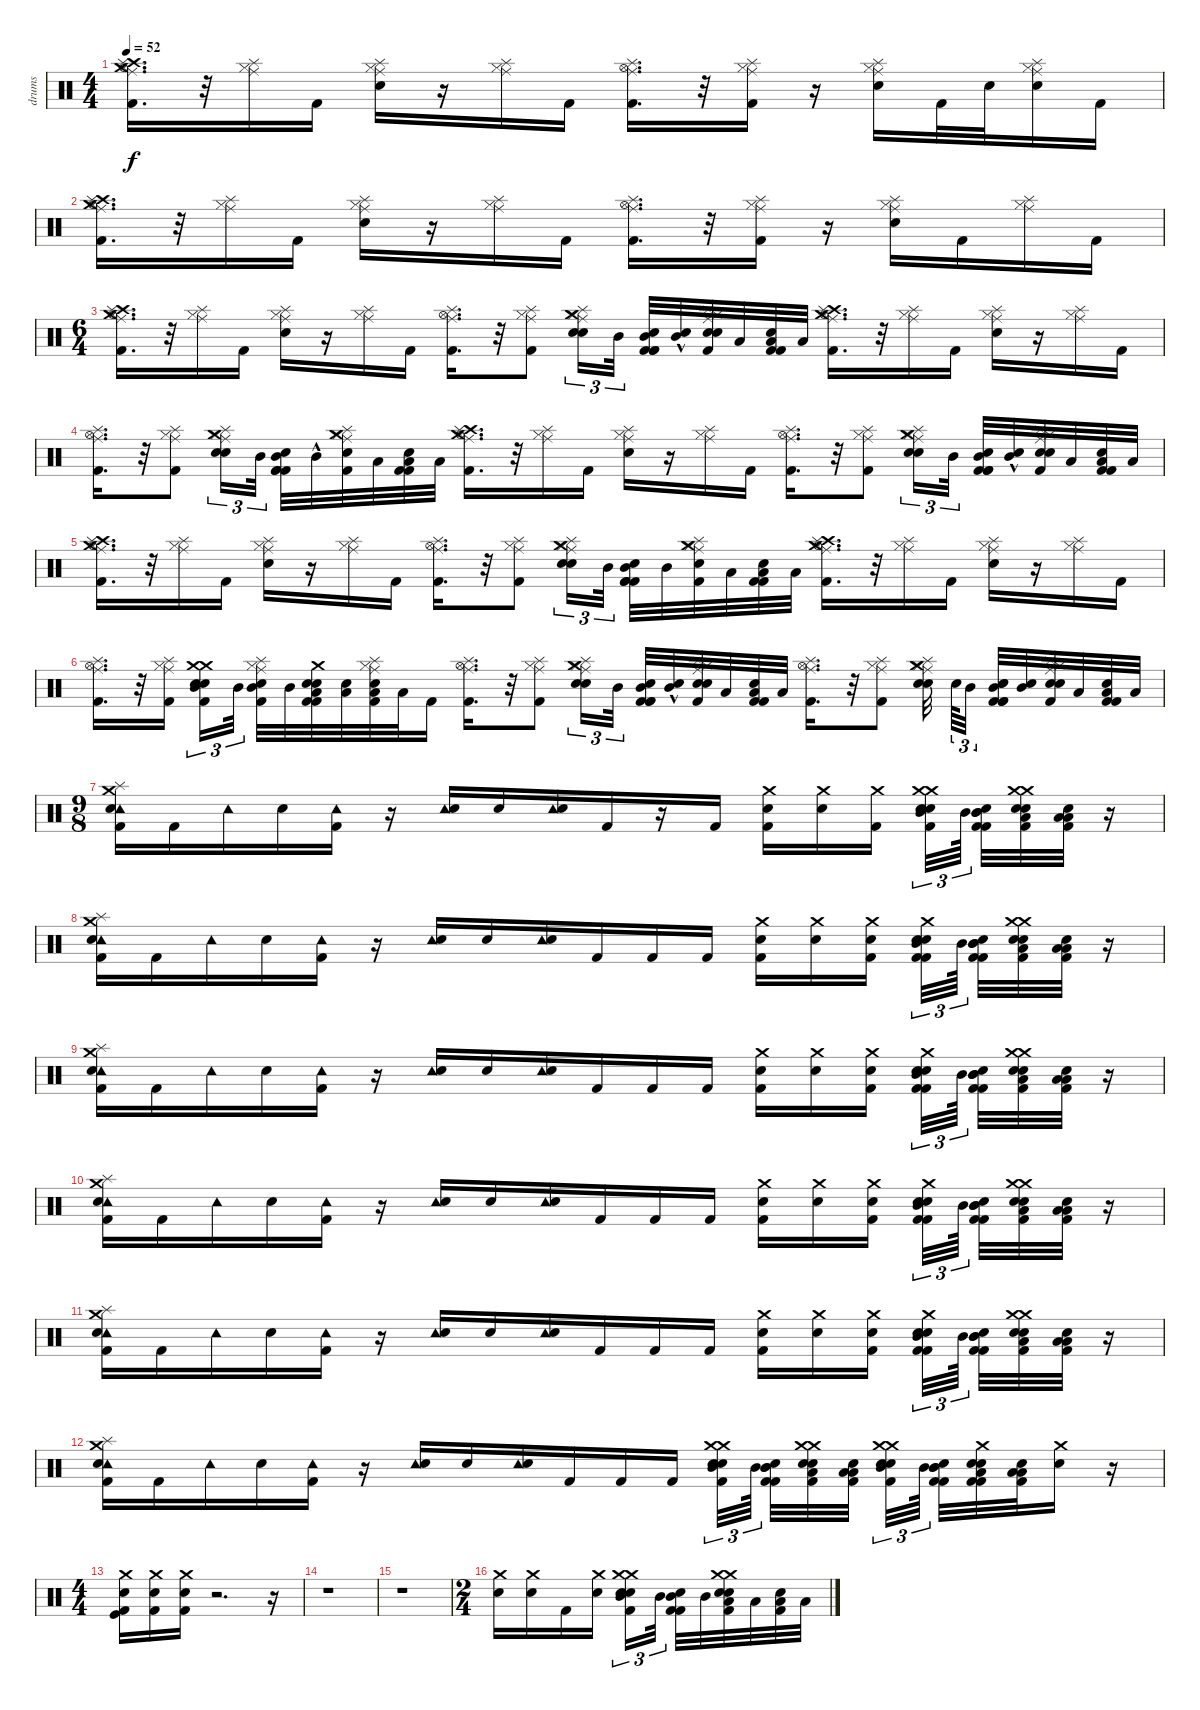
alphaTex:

\track ("drums" "drums") {instrument percussion}
\staff {score}
\articulation defaults
\ts (4 4)
\tempo 52
\clef neutral
\ks c
("Crash medium (hit)" "Crash high (hit)" "Kick (hit) 2" "Ride (middle)" "Hi-Hat (open)" "Splash (hit)").16{d dy f} r.32 ("Ride (middle)" "Hi-Hat (closed)" "Splash (hit)").16 "Kick (hit) 2".16 ("Snare (hit) 2" "Ride (middle)" "Hi-Hat (closed)" "Splash (hit)").16 r.16 ("Ride (middle)" "Hi-Hat (closed)" "Splash (hit)").16 "Kick (hit) 2".16 ("Kick (hit) 2" "Ride (middle)" "Hi-Hat (open)" "Splash (hit)").16{d} r.32 ("Kick (hit) 2" "Ride (middle)" "Hi-Hat (closed)" "Splash (hit)").16 r.16 ("Snare (hit) 2" "Ride (middle)" "Hi-Hat (closed)" "Splash (hit)").16 "Kick (hit) 2".32 "Snare (hit) 2".32 ("Hi-Hat (closed)" "Splash (hit)" "Ride (middle)" "Snare (hit) 2").16 "Kick (hit) 2".16 |
("Crash medium (hit)" "Crash high (hit)" "Kick (hit) 2" "Ride (middle)" "Hi-Hat (open)" "Splash (hit)").16{d} r.32 ("Ride (middle)" "Hi-Hat (closed)" "Splash (hit)").16 "Kick (hit) 2".16 ("Snare (hit) 2" "Ride (middle)" "Hi-Hat (closed)" "Splash (hit)").16 r.16 ("Ride (middle)" "Hi-Hat (closed)" "Splash (hit)").16 "Kick (hit) 2".16 ("Kick (hit) 2" "Ride (middle)" "Hi-Hat (open)" "Splash (hit)").16{d} r.32 ("Kick (hit) 2" "Ride (middle)" "Hi-Hat (closed)" "Splash (hit)").16 r.16 ("Snare (hit) 2" "Ride (middle)" "Hi-Hat (closed)" "Splash (hit)").16 "Kick (hit) 2".16 ("Ride (middle)" "Hi-Hat (closed)" "Splash (hit)").16 "Kick (hit) 2".16 |
\ts (6 4)
("Crash medium (hit)" "Crash high (hit)" "Kick (hit) 2" "Ride (middle)" "Hi-Hat (open)" "Splash (hit)").16{d} r.32 ("Ride (middle)" "Hi-Hat (closed)" "Splash (hit)").16 "Kick (hit) 2".16 ("Snare (hit) 2" "Ride (middle)" "Hi-Hat (closed)" "Splash (hit)").16 r.16 ("Ride (middle)" "Hi-Hat (closed)" "Splash (hit)").16 "Kick (hit) 2".16 ("Kick (hit) 2" "Ride (middle)" "Hi-Hat (open)" "Splash (hit)").16{d} r.32 ("Kick (hit) 2" "Ride (middle)" "Hi-Hat (closed)" "Splash (hit)").8 ("Snare (hit) 2" "Ride (middle)" "Hi-Hat (closed)" "Splash (hit)" "Snare (hit) 2" "Crash medium (hit)").16{tu (3 2)} "Mid Tom (hit)".32{tu (3 2)} ("Kick (hit) 2" "Kick (hit) 2" "Mid Tom (hit)" "Kick (hit) 2" "Snare (hit) 2").32 ("Mid Tom (hit)"{hac} "Snare (hit) 2").32 ("Hi-Hat (closed)" "Splash (hit)" "Ride (middle)" "Snare (hit) 2" "Snare (hit) 2" "Kick (hit) 2").32 "Low Tom (hit)".32 ("Kick (hit) 2" "Low Tom (hit)" "Kick (hit) 2" "Snare (hit) 2").32 "Low Tom (hit)".32 ("Crash medium (hit)" "Crash high (hit)" "Kick (hit) 2" "Ride (middle)" "Hi-Hat (open)" "Splash (hit)").16{d} r.32 ("Ride (middle)" "Hi-Hat (closed)" "Splash (hit)").16 "Kick (hit) 2".16 ("Snare (hit) 2" "Ride (middle)" "Hi-Hat (closed)" "Splash (hit)").16 r.16 ("Ride (middle)" "Hi-Hat (closed)" "Splash (hit)").16 "Kick (hit) 2".16 |
("Kick (hit) 2" "Ride (middle)" "Hi-Hat (open)" "Splash (hit)").16{d} r.32 ("Kick (hit) 2" "Ride (middle)" "Hi-Hat (closed)" "Splash (hit)").8 ("Snare (hit) 2" "Ride (middle)" "Hi-Hat (closed)" "Splash (hit)" "Snare (hit) 2" "Crash medium (hit)").16{tu (3 2)} "Mid Tom (hit)".32{tu (3 2)} ("Kick (hit) 2" "Kick (hit) 2" "Mid Tom (hit)" "Kick (hit) 2" "Snare (hit) 2").32 "Mid Tom (hit)"{hac}.32 ("Ride (middle)" "Hi-Hat (closed)" "Splash (hit)" "Snare (hit) 2" "Kick (hit) 2" "Crash medium (hit)").32 "Low Tom (hit)".32 ("Kick (hit) 2" "Low Tom (hit)" "Kick (hit) 2" "Snare (hit) 2").32 "Low Tom (hit)".32 ("Crash medium (hit)" "Crash high (hit)" "Kick (hit) 2" "Ride (middle)" "Hi-Hat (open)" "Splash (hit)").16{d} r.32 ("Ride (middle)" "Hi-Hat (closed)" "Splash (hit)").16 "Kick (hit) 2".16 ("Snare (hit) 2" "Ride (middle)" "Hi-Hat (closed)" "Splash (hit)").16 r.16 ("Ride (middle)" "Hi-Hat (closed)" "Splash (hit)").16 "Kick (hit) 2".16 ("Kick (hit) 2" "Ride (middle)" "Hi-Hat (open)" "Splash (hit)").16{d} r.32 ("Kick (hit) 2" "Ride (middle)" "Hi-Hat (closed)" "Splash (hit)").8 ("Snare (hit) 2" "Ride (middle)" "Hi-Hat (closed)" "Splash (hit)" "Snare (hit) 2" "Crash medium (hit)").16{tu (3 2)} "Mid Tom (hit)".32{tu (3 2)} ("Kick (hit) 2" "Kick (hit) 2" "Mid Tom (hit)" "Kick (hit) 2" "Snare (hit) 2").32 ("Mid Tom (hit)"{hac} "Snare (hit) 2").32 ("Hi-Hat (closed)" "Splash (hit)" "Ride (middle)" "Snare (hit) 2" "Snare (hit) 2" "Kick (hit) 2").32 "Low Tom (hit)".32 ("Kick (hit) 2" "Low Tom (hit)" "Kick (hit) 2" "Snare (hit) 2").32 "Low Tom (hit)".32 |
("Crash medium (hit)" "Crash high (hit)" "Kick (hit) 2" "Ride (middle)" "Hi-Hat (open)" "Splash (hit)").16{d} r.32 ("Ride (middle)" "Hi-Hat (closed)" "Splash (hit)").16 "Kick (hit) 2".16 ("Snare (hit) 2" "Ride (middle)" "Hi-Hat (closed)" "Splash (hit)").16 r.16 ("Ride (middle)" "Hi-Hat (closed)" "Splash (hit)").16 "Kick (hit) 2".16 ("Kick (hit) 2" "Ride (middle)" "Hi-Hat (open)" "Splash (hit)").16{d} r.32 ("Kick (hit) 2" "Ride (middle)" "Hi-Hat (closed)" "Splash (hit)").8 ("Snare (hit) 2" "Ride (middle)" "Hi-Hat (closed)" "Splash (hit)" "Snare (hit) 2" "Crash medium (hit)").16{tu (3 2)} "Mid Tom (hit)".32{tu (3 2)} ("Kick (hit) 2" "Kick (hit) 2" "Mid Tom (hit)" "Kick (hit) 2" "Snare (hit) 2").32 "Mid Tom (hit)".32 ("Ride (middle)" "Hi-Hat (closed)" "Splash (hit)" "Snare (hit) 2" "Kick (hit) 2" "Crash medium (hit)").32 "Low Tom (hit)".32 ("Kick (hit) 2" "Low Tom (hit)" "Kick (hit) 2" "Snare (hit) 2").32 "Low Tom (hit)".32 ("Crash medium (hit)" "Crash high (hit)" "Kick (hit) 2" "Ride (middle)" "Hi-Hat (open)" "Splash (hit)").16{d} r.32 ("Ride (middle)" "Hi-Hat (closed)" "Splash (hit)").16 "Kick (hit) 2".16 ("Snare (hit) 2" "Ride (middle)" "Hi-Hat (closed)" "Splash (hit)").16 r.16 ("Ride (middle)" "Hi-Hat (closed)" "Splash (hit)").16 "Kick (hit) 2".16 |
("Kick (hit) 2" "Ride (middle)" "Hi-Hat (open)" "Splash (hit)").16{d} r.32 ("Kick (hit) 2" "Ride (middle)" "Hi-Hat (closed)" "Splash (hit)").16 ("Snare (hit) 2" "Crash medium (hit)" "Mid Tom (hit)" "Kick (hit) 2" "Snare (hit) 2" "Crash medium (hit)").16{tu (3 2)} "Mid Tom (hit)".32{tu (3 2)} ("Snare (hit) 2" "Ride (middle)" "Hi-Hat (closed)" "Splash (hit)" "Kick (hit) 2" "Mid Tom (hit)").32 "Mid Tom (hit)".32 ("Kick (hit) 2" "Snare (hit) 2" "Kick (hit) 2" "Crash medium (hit)" "Low Tom (hit)" "Snare (hit) 2").32 ("Low Tom (hit)" "Snare (hit) 2").32 ("Hi-Hat (closed)" "Splash (hit)" "Ride (middle)" "Snare (hit) 2" "Low Tom (hit)" "Kick (hit) 2").32 "Low Tom (hit)".32 "Kick (hit) 2".16 ("Kick (hit) 2" "Ride (middle)" "Hi-Hat (open)" "Splash (hit)").16{d} r.32 ("Kick (hit) 2" "Ride (middle)" "Hi-Hat (closed)" "Splash (hit)").8 ("Snare (hit) 2" "Ride (middle)" "Hi-Hat (closed)" "Splash (hit)" "Snare (hit) 2" "Crash medium (hit)").16{tu (3 2)} "Mid Tom (hit)".32{tu (3 2)} ("Kick (hit) 2" "Kick (hit) 2" "Mid Tom (hit)" "Kick (hit) 2" "Snare (hit) 2").32 ("Mid Tom (hit)"{hac} "Snare (hit) 2").32 ("Hi-Hat (closed)" "Splash (hit)" "Ride (middle)" "Snare (hit) 2" "Snare (hit) 2" "Kick (hit) 2").32 "Low Tom (hit)".32 ("Kick (hit) 2" "Low Tom (hit)" "Kick (hit) 2" "Snare (hit) 2").32 "Low Tom (hit)".32 ("Kick (hit) 2" "Ride (middle)" "Hi-Hat (open)" "Splash (hit)").16{d} r.32 ("Kick (hit) 2" "Ride (middle)" "Hi-Hat (closed)" "Splash (hit)").8 ("Snare (hit) 2" "Ride (middle)" "Hi-Hat (closed)" "Splash (hit)" "Snare (hit) 2" "Crash medium (hit)").32 "Snare (hit) 2".64{tu (3 2)} "Mid Tom (hit)".32{tu (3 2)} ("Kick (hit) 2" "Snare (hit) 2" "Kick (hit) 2" "Mid Tom (hit)" "Kick (hit) 2" "Snare (hit) 2").32 ("Mid Tom (hit)" "Snare (hit) 2").32 ("Hi-Hat (closed)" "Splash (hit)" "Ride (middle)" "Snare (hit) 2" "Snare (hit) 2" "Kick (hit) 2").32 "Low Tom (hit)".32 ("Kick (hit) 2" "Low Tom (hit)" "Kick (hit) 2" "Snare (hit) 2").32 "Low Tom (hit)".32 |
\ts (9 8)
("Crash medium (hit)" "Splash (hit)" "Tambourine (hit)" "Snare (hit) 2" "Kick (hit) 2").16 "Kick (hit) 2".16 "Tambourine (hit)".16 "Snare (hit) 2".16 ("Tambourine (hit)" "Kick (hit) 2").16 r.16 ("Tambourine (hit)" "Snare (hit) 2").16 "Snare (hit) 2".16 ("Tambourine (hit)" "Snare (hit) 2").16 "Kick (hit) 2".16 r.16 "Kick (hit) 2".16 ("Kick (hit) 2" "Crash medium (hit)" "Snare (hit) 2").16 ("Snare (hit) 2" "Crash medium (hit)").16 ("Kick (hit) 2" "Crash medium (hit)").16 ("Snare (hit) 2" "Crash medium (hit)" "Mid Tom (hit)" "Kick (hit) 2" "Snare (hit) 2" "Crash medium (hit)").32{tu (3 2)} "Mid Tom (hit)".64{tu (3 2)} ("Kick (hit) 2" "Mid Tom (hit)" "Kick (hit) 2" "Snare (hit) 2" "Mid Tom (hit)").32 ("Snare (hit) 2" "Crash medium (hit)" "Snare (hit) 2" "Kick (hit) 2" "Crash medium (hit)" "Low Tom (hit)").32 ("Low Tom (hit)" "Kick (hit) 2" "Snare (hit) 2" "Low Tom (hit)").32 r.16 |
("Crash medium (hit)" "Splash (hit)" "Tambourine (hit)" "Snare (hit) 2" "Kick (hit) 2").16 "Kick (hit) 2".16 "Tambourine (hit)".16 "Snare (hit) 2".16 ("Tambourine (hit)" "Kick (hit) 2").16 r.16 ("Tambourine (hit)" "Snare (hit) 2").16 "Snare (hit) 2".16 ("Tambourine (hit)" "Snare (hit) 2").16 "Kick (hit) 2".16 "Kick (hit) 2".16 "Kick (hit) 2".16 ("Kick (hit) 2" "Crash medium (hit)" "Snare (hit) 2").16 ("Snare (hit) 2" "Crash medium (hit)").16 ("Kick (hit) 2" "Crash medium (hit)" "Snare (hit) 2").16 ("Kick (hit) 2" "Snare (hit) 2" "Crash medium (hit)" "Mid Tom (hit)" "Kick (hit) 2" "Snare (hit) 2").32{tu (3 2)} "Mid Tom (hit)".64{tu (3 2)} ("Kick (hit) 2" "Mid Tom (hit)" "Kick (hit) 2" "Snare (hit) 2" "Mid Tom (hit)").32 ("Snare (hit) 2" "Crash medium (hit)" "Snare (hit) 2" "Kick (hit) 2" "Crash medium (hit)" "Low Tom (hit)").32 ("Low Tom (hit)" "Kick (hit) 2" "Snare (hit) 2" "Low Tom (hit)").32 r.16 |
("Crash medium (hit)" "Splash (hit)" "Tambourine (hit)" "Snare (hit) 2" "Kick (hit) 2").16 "Kick (hit) 2".16 "Tambourine (hit)".16 "Snare (hit) 2".16 ("Tambourine (hit)" "Kick (hit) 2").16 r.16 ("Tambourine (hit)" "Snare (hit) 2").16 "Snare (hit) 2".16 ("Tambourine (hit)" "Snare (hit) 2").16 "Kick (hit) 2".16 "Kick (hit) 2".16 "Kick (hit) 2".16 ("Kick (hit) 2" "Crash medium (hit)" "Snare (hit) 2").16 ("Snare (hit) 2" "Crash medium (hit)").16 ("Kick (hit) 2" "Crash medium (hit)" "Snare (hit) 2").16 ("Kick (hit) 2" "Snare (hit) 2" "Crash medium (hit)" "Mid Tom (hit)" "Kick (hit) 2" "Snare (hit) 2").32{tu (3 2)} "Mid Tom (hit)".64{tu (3 2)} ("Kick (hit) 2" "Mid Tom (hit)" "Kick (hit) 2" "Snare (hit) 2" "Mid Tom (hit)").32 ("Snare (hit) 2" "Crash medium (hit)" "Snare (hit) 2" "Kick (hit) 2" "Crash medium (hit)" "Low Tom (hit)").32 ("Low Tom (hit)" "Kick (hit) 2" "Snare (hit) 2" "Low Tom (hit)").32 r.16 |
("Crash medium (hit)" "Splash (hit)" "Tambourine (hit)" "Snare (hit) 2" "Kick (hit) 2").16 "Kick (hit) 2".16 "Tambourine (hit)".16 "Snare (hit) 2".16 ("Tambourine (hit)" "Kick (hit) 2").16 r.16 ("Tambourine (hit)" "Snare (hit) 2").16 "Snare (hit) 2".16 ("Tambourine (hit)" "Snare (hit) 2").16 "Kick (hit) 2".16 "Kick (hit) 2".16 "Kick (hit) 2".16 ("Kick (hit) 2" "Crash medium (hit)" "Snare (hit) 2").16 ("Snare (hit) 2" "Crash medium (hit)").16 ("Kick (hit) 2" "Crash medium (hit)" "Snare (hit) 2").16 ("Kick (hit) 2" "Snare (hit) 2" "Crash medium (hit)" "Mid Tom (hit)" "Kick (hit) 2" "Snare (hit) 2").32{tu (3 2)} "Mid Tom (hit)".64{tu (3 2)} ("Kick (hit) 2" "Mid Tom (hit)" "Kick (hit) 2" "Snare (hit) 2" "Mid Tom (hit)").32 ("Snare (hit) 2" "Crash medium (hit)" "Snare (hit) 2" "Kick (hit) 2" "Crash medium (hit)" "Low Tom (hit)").32 ("Low Tom (hit)" "Kick (hit) 2" "Snare (hit) 2" "Low Tom (hit)").32 r.16 |
("Crash medium (hit)" "Splash (hit)" "Tambourine (hit)" "Snare (hit) 2" "Kick (hit) 2").16 "Kick (hit) 2".16 "Tambourine (hit)".16 "Snare (hit) 2".16 ("Tambourine (hit)" "Kick (hit) 2").16 r.16 ("Tambourine (hit)" "Snare (hit) 2").16 "Snare (hit) 2".16 ("Tambourine (hit)" "Snare (hit) 2").16 "Kick (hit) 2".16 "Kick (hit) 2".16 "Kick (hit) 2".16 ("Kick (hit) 2" "Crash medium (hit)" "Snare (hit) 2").16 ("Snare (hit) 2" "Crash medium (hit)").16 ("Kick (hit) 2" "Crash medium (hit)" "Snare (hit) 2").16 ("Kick (hit) 2" "Snare (hit) 2" "Crash medium (hit)" "Mid Tom (hit)" "Kick (hit) 2" "Snare (hit) 2").32{tu (3 2)} "Mid Tom (hit)".64{tu (3 2)} ("Kick (hit) 2" "Mid Tom (hit)" "Kick (hit) 2" "Snare (hit) 2" "Mid Tom (hit)").32 ("Snare (hit) 2" "Crash medium (hit)" "Snare (hit) 2" "Kick (hit) 2" "Crash medium (hit)" "Low Tom (hit)").32 ("Low Tom (hit)" "Kick (hit) 2" "Snare (hit) 2" "Low Tom (hit)").32 r.16 |
("Crash medium (hit)" "Splash (hit)" "Tambourine (hit)" "Snare (hit) 2" "Kick (hit) 2").16 "Kick (hit) 2".16 "Tambourine (hit)".16 "Snare (hit) 2".16 ("Tambourine (hit)" "Kick (hit) 2").16 r.16 ("Tambourine (hit)" "Snare (hit) 2").16 "Snare (hit) 2".16 ("Tambourine (hit)" "Snare (hit) 2").16 "Kick (hit) 2".16 "Kick (hit) 2".16 "Kick (hit) 2".16 ("Kick (hit) 2" "Crash medium (hit)" "Snare (hit) 2" "Snare (hit) 2" "Crash medium (hit)" "Mid Tom (hit)").32{tu (3 2)} "Mid Tom (hit)".64{tu (3 2)} ("Kick (hit) 2" "Mid Tom (hit)" "Kick (hit) 2" "Snare (hit) 2" "Mid Tom (hit)").32 ("Snare (hit) 2" "Crash medium (hit)" "Snare (hit) 2" "Kick (hit) 2" "Crash medium (hit)" "Low Tom (hit)").32 ("Low Tom (hit)" "Kick (hit) 2" "Snare (hit) 2" "Low Tom (hit)").32 ("Kick (hit) 2" "Crash medium (hit)" "Snare (hit) 2" "Snare (hit) 2" "Crash medium (hit)" "Mid Tom (hit)").32{tu (3 2)} "Mid Tom (hit)".64{tu (3 2)} ("Kick (hit) 2" "Mid Tom (hit)" "Kick (hit) 2" "Snare (hit) 2" "Mid Tom (hit)").32 ("Kick (hit) 2" "Snare (hit) 2" "Kick (hit) 2" "Crash medium (hit)" "Low Tom (hit)" "Snare (hit) 2").32 ("Low Tom (hit)" "Kick (hit) 2" "Snare (hit) 2" "Low Tom (hit)").32 ("Snare (hit) 2" "Crash medium (hit)").16 r.16 |
\ts (4 4)
("Kick (hit) 2" "Kick (hit)" "Snare (hit) 2" "Crash medium (hit)").16 ("Snare (hit) 2" "Kick (hit) 2" "Crash medium (hit)").16 ("Snare (hit) 2" "Kick (hit) 2" "Crash medium (hit)").16 r.2{d} r.16 |
r.1 |
r.1 |
\ts (2 4)
("Snare (hit) 2" "Crash medium (hit)").16 ("Snare (hit) 2" "Crash medium (hit)").16 "Kick (hit) 2".16 ("Snare (hit) 2" "Crash medium (hit)").16 ("Snare (hit) 2" "Crash medium (hit)" "Mid Tom (hit)" "Kick (hit) 2" "Snare (hit) 2" "Crash medium (hit)").16{tu (3 2)} "Mid Tom (hit)".32{tu (3 2)} ("Kick (hit) 2" "Mid Tom (hit)" "Kick (hit) 2" "Snare (hit) 2").32 "Mid Tom (hit)".32 ("Snare (hit) 2" "Kick (hit) 2" "Crash medium (hit)" "Low Tom (hit)" "Snare (hit) 2" "Crash medium (hit)").32 "Low Tom (hit)".32 ("Low Tom (hit)" "Kick (hit) 2" "Snare (hit) 2").32 "Low Tom (hit)".32
